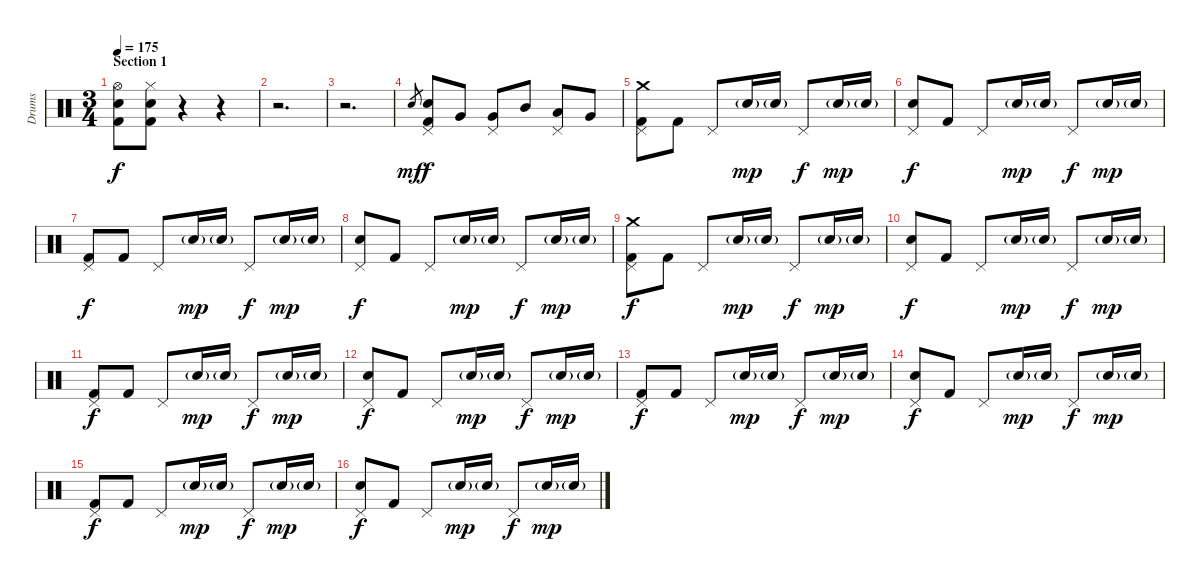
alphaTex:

\track ("Drums" "Drums") {instrument percussion}
\staff {score}
\articulation defaults
\ts (3 4)
\section ("" "Section 1")
\tempo 175
\clef neutral
\ks c
("Hi-Hat (open)" "Electric Snare (hit)" "Kick (hit) 2").8{dy f} ("Hi-Hat (closed)" "Electric Snare (hit)" "Kick (hit) 2").8 r.4 r.4 |
r.2{d} |
r.2{d} |
"Electric Snare (hit)".8{gr dy mf} ("Pedal Hi-Hat (hit)" "Electric Snare (hit)" "Kick (hit) 2").8{dy f} "Very Low Tom (hit)".8 ("Pedal Hi-Hat (hit)" "Very Low Tom (hit)").8 "Mid Tom (hit)".8 ("Pedal Hi-Hat (hit)" "Low Tom (hit)").8 "Very Low Tom (hit)".8 |
("Crash medium (hit)" "Pedal Hi-Hat (hit)" "Kick (hit) 2").8 "Kick (hit) 2".8 "Pedal Hi-Hat (hit)".8 "Electric Snare (hit)"{g}.16{dy mp} "Electric Snare (hit)"{g}.16 "Pedal Hi-Hat (hit)".8{dy f} "Electric Snare (hit)"{g}.16{dy mp} "Electric Snare (hit)"{g}.16 |
("Pedal Hi-Hat (hit)" "Electric Snare (hit)").8{dy f} "Kick (hit) 2".8 "Pedal Hi-Hat (hit)".8 "Electric Snare (hit)"{g}.16{dy mp} "Electric Snare (hit)"{g}.16 "Pedal Hi-Hat (hit)".8{dy f} "Electric Snare (hit)"{g}.16{dy mp} "Electric Snare (hit)"{g}.16 |
("Pedal Hi-Hat (hit)" "Kick (hit) 2").8{dy f} "Kick (hit) 2".8 "Pedal Hi-Hat (hit)".8 "Electric Snare (hit)"{g}.16{dy mp} "Electric Snare (hit)"{g}.16 "Pedal Hi-Hat (hit)".8{dy f} "Electric Snare (hit)"{g}.16{dy mp} "Electric Snare (hit)"{g}.16 |
("Pedal Hi-Hat (hit)" "Electric Snare (hit)").8{dy f} "Kick (hit) 2".8 "Pedal Hi-Hat (hit)".8 "Electric Snare (hit)"{g}.16{dy mp} "Electric Snare (hit)"{g}.16 "Pedal Hi-Hat (hit)".8{dy f} "Electric Snare (hit)"{g}.16{dy mp} "Electric Snare (hit)"{g}.16 |
("Crash medium (hit)" "Pedal Hi-Hat (hit)" "Kick (hit) 2").8{dy f} "Kick (hit) 2".8 "Pedal Hi-Hat (hit)".8 "Electric Snare (hit)"{g}.16{dy mp} "Electric Snare (hit)"{g}.16 "Pedal Hi-Hat (hit)".8{dy f} "Electric Snare (hit)"{g}.16{dy mp} "Electric Snare (hit)"{g}.16 |
("Pedal Hi-Hat (hit)" "Electric Snare (hit)").8{dy f} "Kick (hit) 2".8 "Pedal Hi-Hat (hit)".8 "Electric Snare (hit)"{g}.16{dy mp} "Electric Snare (hit)"{g}.16 "Pedal Hi-Hat (hit)".8{dy f} "Electric Snare (hit)"{g}.16{dy mp} "Electric Snare (hit)"{g}.16 |
("Pedal Hi-Hat (hit)" "Kick (hit) 2").8{dy f} "Kick (hit) 2".8 "Pedal Hi-Hat (hit)".8 "Electric Snare (hit)"{g}.16{dy mp} "Electric Snare (hit)"{g}.16 "Pedal Hi-Hat (hit)".8{dy f} "Electric Snare (hit)"{g}.16{dy mp} "Electric Snare (hit)"{g}.16 |
("Pedal Hi-Hat (hit)" "Electric Snare (hit)").8{dy f} "Kick (hit) 2".8 "Pedal Hi-Hat (hit)".8 "Electric Snare (hit)"{g}.16{dy mp} "Electric Snare (hit)"{g}.16 "Pedal Hi-Hat (hit)".8{dy f} "Electric Snare (hit)"{g}.16{dy mp} "Electric Snare (hit)"{g}.16 |
("Pedal Hi-Hat (hit)" "Kick (hit) 2").8{dy f} "Kick (hit) 2".8 "Pedal Hi-Hat (hit)".8 "Electric Snare (hit)"{g}.16{dy mp} "Electric Snare (hit)"{g}.16 "Pedal Hi-Hat (hit)".8{dy f} "Electric Snare (hit)"{g}.16{dy mp} "Electric Snare (hit)"{g}.16 |
("Pedal Hi-Hat (hit)" "Electric Snare (hit)").8{dy f} "Kick (hit) 2".8 "Pedal Hi-Hat (hit)".8 "Electric Snare (hit)"{g}.16{dy mp} "Electric Snare (hit)"{g}.16 "Pedal Hi-Hat (hit)".8{dy f} "Electric Snare (hit)"{g}.16{dy mp} "Electric Snare (hit)"{g}.16 |
("Pedal Hi-Hat (hit)" "Kick (hit) 2").8{dy f} "Kick (hit) 2".8 "Pedal Hi-Hat (hit)".8 "Electric Snare (hit)"{g}.16{dy mp} "Electric Snare (hit)"{g}.16 "Pedal Hi-Hat (hit)".8{dy f} "Electric Snare (hit)"{g}.16{dy mp} "Electric Snare (hit)"{g}.16 |
("Pedal Hi-Hat (hit)" "Electric Snare (hit)").8{dy f} "Kick (hit) 2".8 "Pedal Hi-Hat (hit)".8 "Electric Snare (hit)"{g}.16{dy mp} "Electric Snare (hit)"{g}.16 "Pedal Hi-Hat (hit)".8{dy f} "Electric Snare (hit)"{g}.16{dy mp} "Electric Snare (hit)"{g}.16
